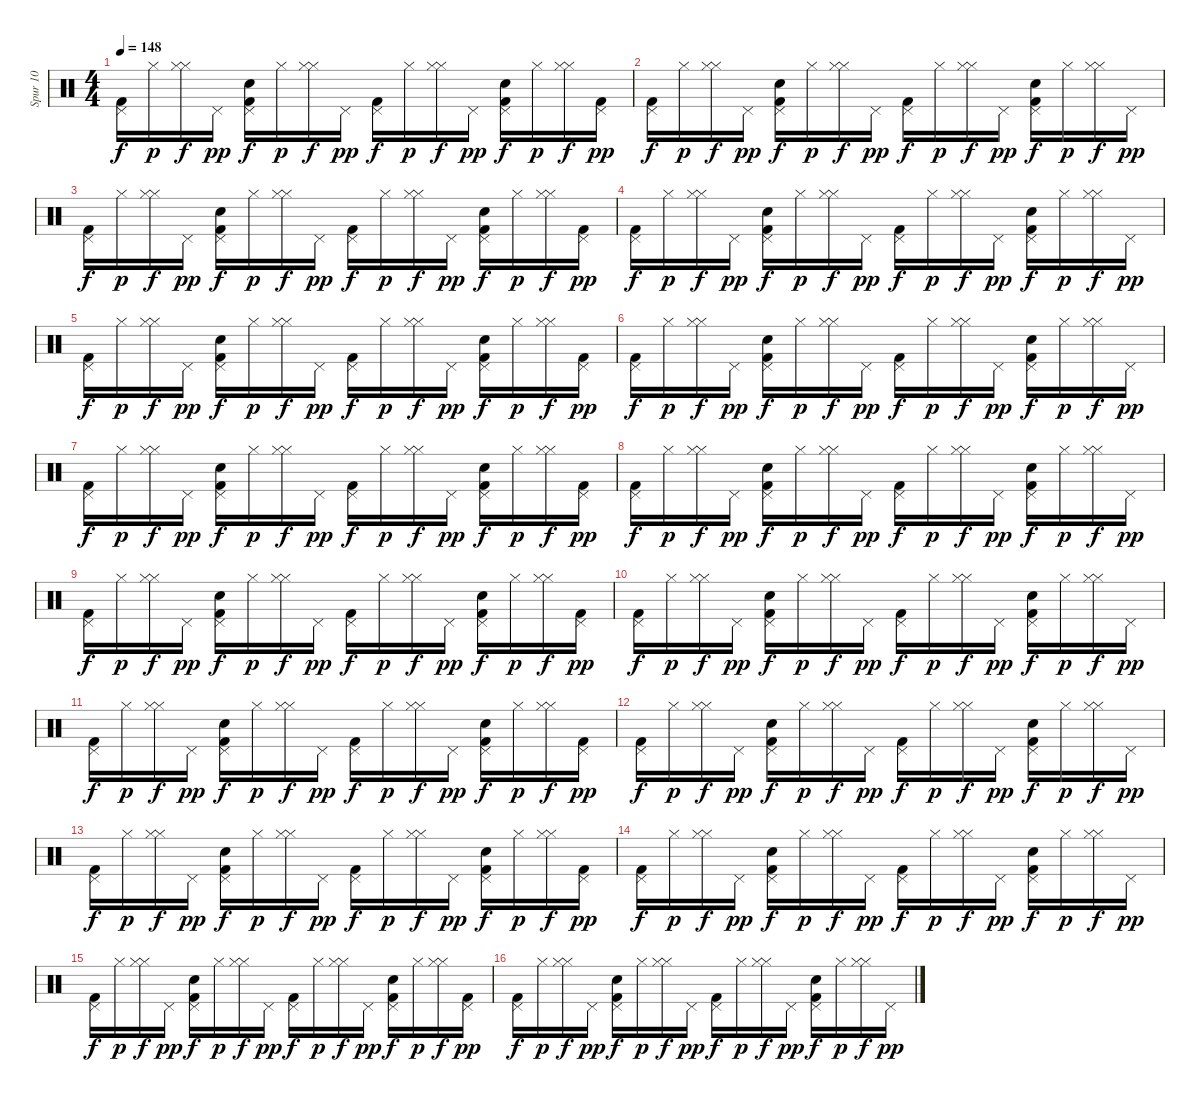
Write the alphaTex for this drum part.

\track ("Spur 10" "Spur 10") {instrument percussion}
\staff {score}
\articulation defaults
\ts (4 4)
\tempo 148
\clef neutral
\ks c
("Pedal Hi-Hat (hit)" "Kick (hit) 2").16{dy f} "Hi-Hat (closed)".16{dy p} ("Hi-Hat (closed)" "Hi-Hat (closed)").16{dy f} "Pedal Hi-Hat (hit)".16{dy pp} ("Pedal Hi-Hat (hit)" "Snare (hit) 2" "Kick (hit) 2").16{dy f} "Hi-Hat (closed)".16{dy p} ("Hi-Hat (closed)" "Hi-Hat (closed)").16{dy f} "Pedal Hi-Hat (hit)".16{dy pp} ("Pedal Hi-Hat (hit)" "Kick (hit) 2").16{dy f} "Hi-Hat (closed)".16{dy p} ("Hi-Hat (closed)" "Hi-Hat (closed)").16{dy f} "Pedal Hi-Hat (hit)".16{dy pp} ("Pedal Hi-Hat (hit)" "Kick (hit) 2" "Snare (hit) 2").16{dy f} "Hi-Hat (closed)".16{dy p} ("Hi-Hat (closed)" "Hi-Hat (closed)").16{dy f} ("Kick (hit) 2" "Pedal Hi-Hat (hit)").16{dy pp} |
("Pedal Hi-Hat (hit)" "Kick (hit) 2").16{dy f} "Hi-Hat (closed)".16{dy p} ("Hi-Hat (closed)" "Hi-Hat (closed)").16{dy f} "Pedal Hi-Hat (hit)".16{dy pp} ("Pedal Hi-Hat (hit)" "Snare (hit) 2" "Kick (hit) 2").16{dy f} "Hi-Hat (closed)".16{dy p} ("Hi-Hat (closed)" "Hi-Hat (closed)").16{dy f} "Pedal Hi-Hat (hit)".16{dy pp} ("Pedal Hi-Hat (hit)" "Kick (hit) 2").16{dy f} "Hi-Hat (closed)".16{dy p} ("Hi-Hat (closed)" "Hi-Hat (closed)").16{dy f} "Pedal Hi-Hat (hit)".16{dy pp} ("Pedal Hi-Hat (hit)" "Kick (hit) 2" "Snare (hit) 2").16{dy f} "Hi-Hat (closed)".16{dy p} ("Hi-Hat (closed)" "Hi-Hat (closed)").16{dy f} "Pedal Hi-Hat (hit)".16{dy pp} |
("Pedal Hi-Hat (hit)" "Kick (hit) 2").16{dy f} "Hi-Hat (closed)".16{dy p} ("Hi-Hat (closed)" "Hi-Hat (closed)").16{dy f} "Pedal Hi-Hat (hit)".16{dy pp} ("Pedal Hi-Hat (hit)" "Snare (hit) 2" "Kick (hit) 2").16{dy f} "Hi-Hat (closed)".16{dy p} ("Hi-Hat (closed)" "Hi-Hat (closed)").16{dy f} "Pedal Hi-Hat (hit)".16{dy pp} ("Pedal Hi-Hat (hit)" "Kick (hit) 2").16{dy f} "Hi-Hat (closed)".16{dy p} ("Hi-Hat (closed)" "Hi-Hat (closed)").16{dy f} "Pedal Hi-Hat (hit)".16{dy pp} ("Pedal Hi-Hat (hit)" "Kick (hit) 2" "Snare (hit) 2").16{dy f} "Hi-Hat (closed)".16{dy p} ("Hi-Hat (closed)" "Hi-Hat (closed)").16{dy f} ("Kick (hit) 2" "Pedal Hi-Hat (hit)").16{dy pp} |
("Pedal Hi-Hat (hit)" "Kick (hit) 2").16{dy f} "Hi-Hat (closed)".16{dy p} ("Hi-Hat (closed)" "Hi-Hat (closed)").16{dy f} "Pedal Hi-Hat (hit)".16{dy pp} ("Pedal Hi-Hat (hit)" "Snare (hit) 2" "Kick (hit) 2").16{dy f} "Hi-Hat (closed)".16{dy p} ("Hi-Hat (closed)" "Hi-Hat (closed)").16{dy f} "Pedal Hi-Hat (hit)".16{dy pp} ("Pedal Hi-Hat (hit)" "Kick (hit) 2").16{dy f} "Hi-Hat (closed)".16{dy p} ("Hi-Hat (closed)" "Hi-Hat (closed)").16{dy f} "Pedal Hi-Hat (hit)".16{dy pp} ("Pedal Hi-Hat (hit)" "Snare (hit) 2" "Kick (hit) 2").16{dy f} "Hi-Hat (closed)".16{dy p} ("Hi-Hat (closed)" "Hi-Hat (closed)").16{dy f} "Pedal Hi-Hat (hit)".16{dy pp} |
("Pedal Hi-Hat (hit)" "Kick (hit) 2").16{dy f} "Hi-Hat (closed)".16{dy p} ("Hi-Hat (closed)" "Hi-Hat (closed)").16{dy f} "Pedal Hi-Hat (hit)".16{dy pp} ("Pedal Hi-Hat (hit)" "Snare (hit) 2" "Kick (hit) 2").16{dy f} "Hi-Hat (closed)".16{dy p} ("Hi-Hat (closed)" "Hi-Hat (closed)").16{dy f} "Pedal Hi-Hat (hit)".16{dy pp} ("Pedal Hi-Hat (hit)" "Kick (hit) 2").16{dy f} "Hi-Hat (closed)".16{dy p} ("Hi-Hat (closed)" "Hi-Hat (closed)").16{dy f} "Pedal Hi-Hat (hit)".16{dy pp} ("Pedal Hi-Hat (hit)" "Snare (hit) 2" "Kick (hit) 2").16{dy f} "Hi-Hat (closed)".16{dy p} ("Hi-Hat (closed)" "Hi-Hat (closed)").16{dy f} ("Kick (hit) 2" "Pedal Hi-Hat (hit)").16{dy pp} |
("Pedal Hi-Hat (hit)" "Kick (hit) 2").16{dy f} "Hi-Hat (closed)".16{dy p} ("Hi-Hat (closed)" "Hi-Hat (closed)").16{dy f} "Pedal Hi-Hat (hit)".16{dy pp} ("Pedal Hi-Hat (hit)" "Kick (hit) 2" "Snare (hit) 2").16{dy f} "Hi-Hat (closed)".16{dy p} ("Hi-Hat (closed)" "Hi-Hat (closed)").16{dy f} "Pedal Hi-Hat (hit)".16{dy pp} ("Pedal Hi-Hat (hit)" "Kick (hit) 2").16{dy f} "Hi-Hat (closed)".16{dy p} ("Hi-Hat (closed)" "Hi-Hat (closed)").16{dy f} "Pedal Hi-Hat (hit)".16{dy pp} ("Pedal Hi-Hat (hit)" "Kick (hit) 2" "Snare (hit) 2").16{dy f} "Hi-Hat (closed)".16{dy p} ("Hi-Hat (closed)" "Hi-Hat (closed)").16{dy f} "Pedal Hi-Hat (hit)".16{dy pp} |
("Pedal Hi-Hat (hit)" "Kick (hit) 2").16{dy f} "Hi-Hat (closed)".16{dy p} ("Hi-Hat (closed)" "Hi-Hat (closed)").16{dy f} "Pedal Hi-Hat (hit)".16{dy pp} ("Pedal Hi-Hat (hit)" "Snare (hit) 2" "Kick (hit) 2").16{dy f} "Hi-Hat (closed)".16{dy p} ("Hi-Hat (closed)" "Hi-Hat (closed)").16{dy f} "Pedal Hi-Hat (hit)".16{dy pp} ("Pedal Hi-Hat (hit)" "Kick (hit) 2").16{dy f} "Hi-Hat (closed)".16{dy p} ("Hi-Hat (closed)" "Hi-Hat (closed)").16{dy f} "Pedal Hi-Hat (hit)".16{dy pp} ("Pedal Hi-Hat (hit)" "Snare (hit) 2" "Kick (hit) 2").16{dy f} "Hi-Hat (closed)".16{dy p} ("Hi-Hat (closed)" "Hi-Hat (closed)").16{dy f} ("Kick (hit) 2" "Pedal Hi-Hat (hit)").16{dy pp} |
("Pedal Hi-Hat (hit)" "Kick (hit) 2").16{dy f} "Hi-Hat (closed)".16{dy p} ("Hi-Hat (closed)" "Hi-Hat (closed)").16{dy f} "Pedal Hi-Hat (hit)".16{dy pp} ("Pedal Hi-Hat (hit)" "Kick (hit) 2" "Snare (hit) 2").16{dy f} "Hi-Hat (closed)".16{dy p} ("Hi-Hat (closed)" "Hi-Hat (closed)").16{dy f} "Pedal Hi-Hat (hit)".16{dy pp} ("Pedal Hi-Hat (hit)" "Kick (hit) 2").16{dy f} "Hi-Hat (closed)".16{dy p} ("Hi-Hat (closed)" "Hi-Hat (closed)").16{dy f} "Pedal Hi-Hat (hit)".16{dy pp} ("Pedal Hi-Hat (hit)" "Snare (hit) 2" "Kick (hit) 2").16{dy f} "Hi-Hat (closed)".16{dy p} ("Hi-Hat (closed)" "Hi-Hat (closed)").16{dy f} "Pedal Hi-Hat (hit)".16{dy pp} |
("Pedal Hi-Hat (hit)" "Kick (hit) 2").16{dy f} "Hi-Hat (closed)".16{dy p} ("Hi-Hat (closed)" "Hi-Hat (closed)").16{dy f} "Pedal Hi-Hat (hit)".16{dy pp} ("Pedal Hi-Hat (hit)" "Snare (hit) 2" "Kick (hit) 2").16{dy f} "Hi-Hat (closed)".16{dy p} ("Hi-Hat (closed)" "Hi-Hat (closed)").16{dy f} "Pedal Hi-Hat (hit)".16{dy pp} ("Pedal Hi-Hat (hit)" "Kick (hit) 2").16{dy f} "Hi-Hat (closed)".16{dy p} ("Hi-Hat (closed)" "Hi-Hat (closed)").16{dy f} "Pedal Hi-Hat (hit)".16{dy pp} ("Pedal Hi-Hat (hit)" "Snare (hit) 2" "Kick (hit) 2").16{dy f} "Hi-Hat (closed)".16{dy p} ("Hi-Hat (closed)" "Hi-Hat (closed)").16{dy f} ("Kick (hit) 2" "Pedal Hi-Hat (hit)").16{dy pp} |
("Pedal Hi-Hat (hit)" "Kick (hit) 2").16{dy f} "Hi-Hat (closed)".16{dy p} ("Hi-Hat (closed)" "Hi-Hat (closed)").16{dy f} "Pedal Hi-Hat (hit)".16{dy pp} ("Pedal Hi-Hat (hit)" "Snare (hit) 2" "Kick (hit) 2").16{dy f} "Hi-Hat (closed)".16{dy p} ("Hi-Hat (closed)" "Hi-Hat (closed)").16{dy f} "Pedal Hi-Hat (hit)".16{dy pp} ("Pedal Hi-Hat (hit)" "Kick (hit) 2").16{dy f} "Hi-Hat (closed)".16{dy p} ("Hi-Hat (closed)" "Hi-Hat (closed)").16{dy f} "Pedal Hi-Hat (hit)".16{dy pp} ("Pedal Hi-Hat (hit)" "Snare (hit) 2" "Kick (hit) 2").16{dy f} "Hi-Hat (closed)".16{dy p} ("Hi-Hat (closed)" "Hi-Hat (closed)").16{dy f} "Pedal Hi-Hat (hit)".16{dy pp} |
("Pedal Hi-Hat (hit)" "Kick (hit) 2").16{dy f} "Hi-Hat (closed)".16{dy p} ("Hi-Hat (closed)" "Hi-Hat (closed)").16{dy f} "Pedal Hi-Hat (hit)".16{dy pp} ("Pedal Hi-Hat (hit)" "Kick (hit) 2" "Snare (hit) 2").16{dy f} "Hi-Hat (closed)".16{dy p} ("Hi-Hat (closed)" "Hi-Hat (closed)").16{dy f} "Pedal Hi-Hat (hit)".16{dy pp} ("Pedal Hi-Hat (hit)" "Kick (hit) 2").16{dy f} "Hi-Hat (closed)".16{dy p} ("Hi-Hat (closed)" "Hi-Hat (closed)").16{dy f} "Pedal Hi-Hat (hit)".16{dy pp} ("Pedal Hi-Hat (hit)" "Kick (hit) 2" "Snare (hit) 2").16{dy f} "Hi-Hat (closed)".16{dy p} ("Hi-Hat (closed)" "Hi-Hat (closed)").16{dy f} ("Kick (hit) 2" "Pedal Hi-Hat (hit)").16{dy pp} |
("Pedal Hi-Hat (hit)" "Kick (hit) 2").16{dy f} "Hi-Hat (closed)".16{dy p} ("Hi-Hat (closed)" "Hi-Hat (closed)").16{dy f} "Pedal Hi-Hat (hit)".16{dy pp} ("Pedal Hi-Hat (hit)" "Snare (hit) 2" "Kick (hit) 2").16{dy f} "Hi-Hat (closed)".16{dy p} ("Hi-Hat (closed)" "Hi-Hat (closed)").16{dy f} "Pedal Hi-Hat (hit)".16{dy pp} ("Pedal Hi-Hat (hit)" "Kick (hit) 2").16{dy f} "Hi-Hat (closed)".16{dy p} ("Hi-Hat (closed)" "Hi-Hat (closed)").16{dy f} "Pedal Hi-Hat (hit)".16{dy pp} ("Pedal Hi-Hat (hit)" "Kick (hit) 2" "Snare (hit) 2").16{dy f} "Hi-Hat (closed)".16{dy p} ("Hi-Hat (closed)" "Hi-Hat (closed)").16{dy f} "Pedal Hi-Hat (hit)".16{dy pp} |
("Pedal Hi-Hat (hit)" "Kick (hit) 2").16{dy f} "Hi-Hat (closed)".16{dy p} ("Hi-Hat (closed)" "Hi-Hat (closed)").16{dy f} "Pedal Hi-Hat (hit)".16{dy pp} ("Pedal Hi-Hat (hit)" "Snare (hit) 2" "Kick (hit) 2").16{dy f} "Hi-Hat (closed)".16{dy p} ("Hi-Hat (closed)" "Hi-Hat (closed)").16{dy f} "Pedal Hi-Hat (hit)".16{dy pp} ("Pedal Hi-Hat (hit)" "Kick (hit) 2").16{dy f} "Hi-Hat (closed)".16{dy p} ("Hi-Hat (closed)" "Hi-Hat (closed)").16{dy f} "Pedal Hi-Hat (hit)".16{dy pp} ("Pedal Hi-Hat (hit)" "Kick (hit) 2" "Snare (hit) 2").16{dy f} "Hi-Hat (closed)".16{dy p} ("Hi-Hat (closed)" "Hi-Hat (closed)").16{dy f} ("Kick (hit) 2" "Pedal Hi-Hat (hit)").16{dy pp} |
("Pedal Hi-Hat (hit)" "Kick (hit) 2").16{dy f} "Hi-Hat (closed)".16{dy p} ("Hi-Hat (closed)" "Hi-Hat (closed)").16{dy f} "Pedal Hi-Hat (hit)".16{dy pp} ("Pedal Hi-Hat (hit)" "Snare (hit) 2" "Kick (hit) 2").16{dy f} "Hi-Hat (closed)".16{dy p} ("Hi-Hat (closed)" "Hi-Hat (closed)").16{dy f} "Pedal Hi-Hat (hit)".16{dy pp} ("Pedal Hi-Hat (hit)" "Kick (hit) 2").16{dy f} "Hi-Hat (closed)".16{dy p} ("Hi-Hat (closed)" "Hi-Hat (closed)").16{dy f} "Pedal Hi-Hat (hit)".16{dy pp} ("Pedal Hi-Hat (hit)" "Kick (hit) 2" "Snare (hit) 2").16{dy f} "Hi-Hat (closed)".16{dy p} ("Hi-Hat (closed)" "Hi-Hat (closed)").16{dy f} "Pedal Hi-Hat (hit)".16{dy pp} |
("Pedal Hi-Hat (hit)" "Kick (hit) 2").16{dy f} "Hi-Hat (closed)".16{dy p} ("Hi-Hat (closed)" "Hi-Hat (closed)").16{dy f} "Pedal Hi-Hat (hit)".16{dy pp} ("Pedal Hi-Hat (hit)" "Snare (hit) 2" "Kick (hit) 2").16{dy f} "Hi-Hat (closed)".16{dy p} ("Hi-Hat (closed)" "Hi-Hat (closed)").16{dy f} "Pedal Hi-Hat (hit)".16{dy pp} ("Pedal Hi-Hat (hit)" "Kick (hit) 2").16{dy f} "Hi-Hat (closed)".16{dy p} ("Hi-Hat (closed)" "Hi-Hat (closed)").16{dy f} "Pedal Hi-Hat (hit)".16{dy pp} ("Pedal Hi-Hat (hit)" "Snare (hit) 2" "Kick (hit) 2").16{dy f} "Hi-Hat (closed)".16{dy p} ("Hi-Hat (closed)" "Hi-Hat (closed)").16{dy f} ("Kick (hit) 2" "Pedal Hi-Hat (hit)").16{dy pp} |
("Pedal Hi-Hat (hit)" "Kick (hit) 2").16{dy f} "Hi-Hat (closed)".16{dy p} ("Hi-Hat (closed)" "Hi-Hat (closed)").16{dy f} "Pedal Hi-Hat (hit)".16{dy pp} ("Pedal Hi-Hat (hit)" "Kick (hit) 2" "Snare (hit) 2").16{dy f} "Hi-Hat (closed)".16{dy p} ("Hi-Hat (closed)" "Hi-Hat (closed)").16{dy f} "Pedal Hi-Hat (hit)".16{dy pp} ("Pedal Hi-Hat (hit)" "Kick (hit) 2").16{dy f} "Hi-Hat (closed)".16{dy p} ("Hi-Hat (closed)" "Hi-Hat (closed)").16{dy f} "Pedal Hi-Hat (hit)".16{dy pp} ("Pedal Hi-Hat (hit)" "Snare (hit) 2" "Kick (hit) 2").16{dy f} "Hi-Hat (closed)".16{dy p} ("Hi-Hat (closed)" "Hi-Hat (closed)").16{dy f} "Pedal Hi-Hat (hit)".16{dy pp}
